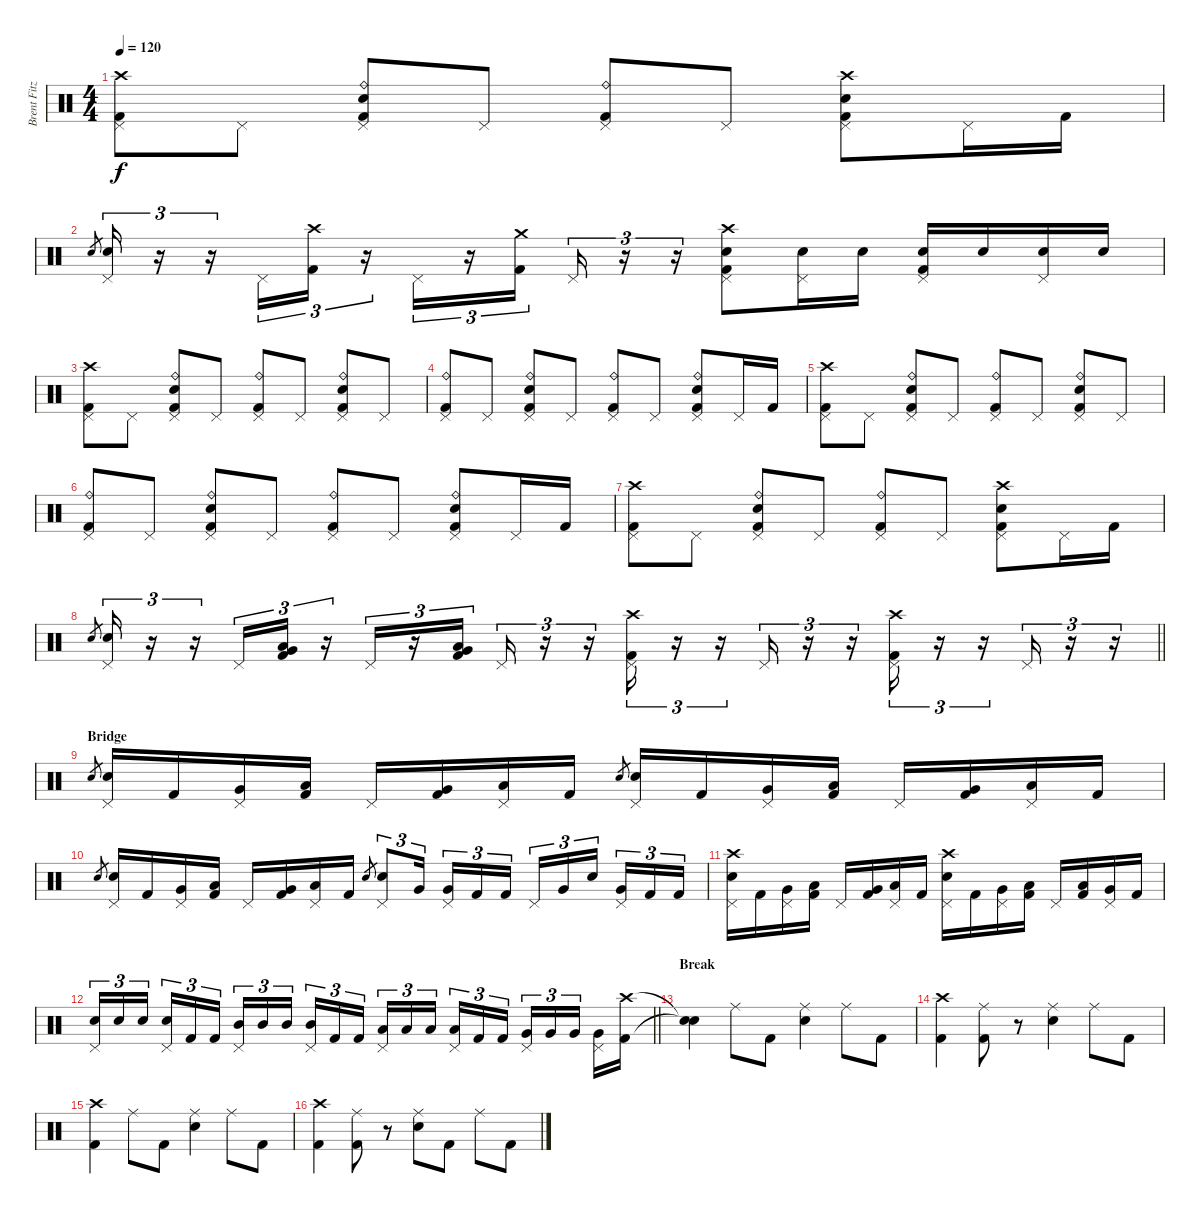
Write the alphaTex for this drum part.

\track ("Brent Fitz" "Brent Fitz") {instrument percussion}
\staff {score}
\articulation defaults
\ts (4 4)
\tempo 120
\clef neutral
\ks c
("Crash high (hit)" "Pedal Hi-Hat (hit)" "Kick (hit) 2").8{dy f} "Pedal Hi-Hat (hit)".8 ("Ride (bell)" "Electric Snare (hit)" "Pedal Hi-Hat (hit)" "Kick (hit) 2").8 "Pedal Hi-Hat (hit)".8 ("Ride (bell)" "Pedal Hi-Hat (hit)" "Kick (hit) 2").8 "Pedal Hi-Hat (hit)".8 ("Crash high (hit)" "Electric Snare (hit)" "Pedal Hi-Hat (hit)" "Kick (hit) 2").8 "Pedal Hi-Hat (hit)".16 "Kick (hit) 2".16 |
"Electric Snare (hit)".8{gr} ("Electric Snare (hit)" "Pedal Hi-Hat (hit)").16{tu (3 2)} r.16{tu (3 2)} r.16{tu (3 2)} "Pedal Hi-Hat (hit)".16{tu (3 2)} ("Crash high (hit)" "Kick (hit) 2").16{tu (3 2)} r.16{tu (3 2)} "Pedal Hi-Hat (hit)".16{tu (3 2)} r.16{tu (3 2)} ("Crash medium (hit)" "Kick (hit) 2").16{tu (3 2)} "Pedal Hi-Hat (hit)".16{tu (3 2)} r.16{tu (3 2)} r.16{tu (3 2)} ("Crash high (hit)" "Electric Snare (hit)" "Kick (hit) 2" "Pedal Hi-Hat (hit)").8 ("Electric Snare (hit)" "Pedal Hi-Hat (hit)").16 "Electric Snare (hit)".16 ("Electric Snare (hit)" "Kick (hit) 2" "Pedal Hi-Hat (hit)").16 "Electric Snare (hit)".16 ("Electric Snare (hit)" "Pedal Hi-Hat (hit)").16 "Electric Snare (hit)".16 |
("Crash high (hit)" "Pedal Hi-Hat (hit)" "Kick (hit) 2").8 "Pedal Hi-Hat (hit)".8 ("Ride (bell)" "Electric Snare (hit)" "Pedal Hi-Hat (hit)" "Kick (hit) 2").8 "Pedal Hi-Hat (hit)".8 ("Ride (bell)" "Pedal Hi-Hat (hit)" "Kick (hit) 2").8 "Pedal Hi-Hat (hit)".8 ("Ride (bell)" "Electric Snare (hit)" "Pedal Hi-Hat (hit)" "Kick (hit) 2").8 "Pedal Hi-Hat (hit)".8 |
("Ride (bell)" "Pedal Hi-Hat (hit)" "Kick (hit) 2").8 "Pedal Hi-Hat (hit)".8 ("Ride (bell)" "Electric Snare (hit)" "Pedal Hi-Hat (hit)" "Kick (hit) 2").8 "Pedal Hi-Hat (hit)".8 ("Ride (bell)" "Pedal Hi-Hat (hit)" "Kick (hit) 2").8 "Pedal Hi-Hat (hit)".8 ("Ride (bell)" "Electric Snare (hit)" "Pedal Hi-Hat (hit)" "Kick (hit) 2").8 "Pedal Hi-Hat (hit)".16 "Kick (hit) 2".16 |
("Crash high (hit)" "Pedal Hi-Hat (hit)" "Kick (hit) 2").8 "Pedal Hi-Hat (hit)".8 ("Ride (bell)" "Electric Snare (hit)" "Pedal Hi-Hat (hit)" "Kick (hit) 2").8 "Pedal Hi-Hat (hit)".8 ("Ride (bell)" "Pedal Hi-Hat (hit)" "Kick (hit) 2").8 "Pedal Hi-Hat (hit)".8 ("Ride (bell)" "Electric Snare (hit)" "Pedal Hi-Hat (hit)" "Kick (hit) 2").8 "Pedal Hi-Hat (hit)".8 |
("Ride (bell)" "Pedal Hi-Hat (hit)" "Kick (hit) 2").8 "Pedal Hi-Hat (hit)".8 ("Ride (bell)" "Electric Snare (hit)" "Pedal Hi-Hat (hit)" "Kick (hit) 2").8 "Pedal Hi-Hat (hit)".8 ("Ride (bell)" "Pedal Hi-Hat (hit)" "Kick (hit) 2").8 "Pedal Hi-Hat (hit)".8 ("Ride (bell)" "Electric Snare (hit)" "Pedal Hi-Hat (hit)" "Kick (hit) 2").8 "Pedal Hi-Hat (hit)".16 "Kick (hit) 2".16 |
("Crash high (hit)" "Pedal Hi-Hat (hit)" "Kick (hit) 2").8 "Pedal Hi-Hat (hit)".8 ("Ride (bell)" "Electric Snare (hit)" "Pedal Hi-Hat (hit)" "Kick (hit) 2").8 "Pedal Hi-Hat (hit)".8 ("Ride (bell)" "Pedal Hi-Hat (hit)" "Kick (hit) 2").8 "Pedal Hi-Hat (hit)".8 ("Crash high (hit)" "Electric Snare (hit)" "Pedal Hi-Hat (hit)" "Kick (hit) 2").8 "Pedal Hi-Hat (hit)".16 "Kick (hit) 2".16 |
\barLineRight lightlight "Electric Snare (hit)".8{gr}
("Electric Snare (hit)" "Pedal Hi-Hat (hit)").16{tu (3 2)} r.16{tu (3 2)} r.16{tu (3 2)} "Pedal Hi-Hat (hit)".16{tu (3 2)} ("Low Tom (hit)" "Very Low Tom (hit)" "Kick (hit) 2").16{tu (3 2)} r.16{tu (3 2)} "Pedal Hi-Hat (hit)".16{tu (3 2)} r.16{tu (3 2)} ("Low Tom (hit)" "Very Low Tom (hit)" "Kick (hit) 2").16{tu (3 2)} "Pedal Hi-Hat (hit)".16{tu (3 2)} r.16{tu (3 2)} r.16{tu (3 2)} ("Crash high (hit)" "Kick (hit) 2" "Pedal Hi-Hat (hit)").16{tu (3 2)} r.16{tu (3 2)} r.16{tu (3 2)} "Pedal Hi-Hat (hit)".16{tu (3 2)} r.16{tu (3 2)} r.16{tu (3 2)} ("Crash high (hit)" "Kick (hit) 2" "Pedal Hi-Hat (hit)").16{tu (3 2)} r.16{tu (3 2)} r.16{tu (3 2)} "Pedal Hi-Hat (hit)".16{tu (3 2)} r.16{tu (3 2)} r.16{tu (3 2)} |
\section ("" "Bridge")
"Electric Snare (hit)".8{gr} ("Electric Snare (hit)" "Pedal Hi-Hat (hit)").16 "Kick (hit) 2".16 ("Very Low Tom (hit)" "Pedal Hi-Hat (hit)").16 ("Low Tom (hit)" "Kick (hit) 2").16 "Pedal Hi-Hat (hit)".16 ("Very Low Tom (hit)" "Kick (hit) 2").16 ("Low Tom (hit)" "Pedal Hi-Hat (hit)").16 "Kick (hit) 2".16 "Electric Snare (hit)".8{gr} ("Electric Snare (hit)" "Pedal Hi-Hat (hit)").16 "Kick (hit) 2".16 ("Very Low Tom (hit)" "Pedal Hi-Hat (hit)").16 ("Low Tom (hit)" "Kick (hit) 2").16 "Pedal Hi-Hat (hit)".16 ("Very Low Tom (hit)" "Kick (hit) 2").16 ("Low Tom (hit)" "Pedal Hi-Hat (hit)").16 "Kick (hit) 2".16 |
"Electric Snare (hit)".8{gr} ("Electric Snare (hit)" "Pedal Hi-Hat (hit)").16 "Kick (hit) 2".16 ("Very Low Tom (hit)" "Pedal Hi-Hat (hit)").16 ("Low Tom (hit)" "Kick (hit) 2").16 "Pedal Hi-Hat (hit)".16 ("Very Low Tom (hit)" "Kick (hit) 2").16 ("Low Tom (hit)" "Pedal Hi-Hat (hit)").16 "Kick (hit) 2".16 "Electric Snare (hit)".8{gr} ("Electric Snare (hit)" "Pedal Hi-Hat (hit)").8{tu (3 2)} "Very Low Tom (hit)".16{tu (3 2) beam splitsecondary} ("Very Low Tom (hit)" "Pedal Hi-Hat (hit)").16{tu (3 2)} "Kick (hit) 2".16{tu (3 2)} "Kick (hit) 2".16{tu (3 2)} "Pedal Hi-Hat (hit)".16{tu (3 2)} "Very Low Tom (hit)".16{tu (3 2)} "Electric Snare (hit)".16{tu (3 2) beam splitsecondary} ("Very Low Tom (hit)" "Pedal Hi-Hat (hit)").16{tu (3 2)} "Kick (hit) 2".16{tu (3 2)} "Kick (hit) 2".16{tu (3 2)} |
("Crash high (hit)" "Electric Snare (hit)" "Pedal Hi-Hat (hit)").16 "Kick (hit) 2".16 ("Very Low Tom (hit)" "Pedal Hi-Hat (hit)").16 ("Low Tom (hit)" "Kick (hit) 2").16 "Pedal Hi-Hat (hit)".16 ("Very Low Tom (hit)" "Kick (hit) 2").16 ("Low Tom (hit)" "Pedal Hi-Hat (hit)").16 "Kick (hit) 2".16 ("Crash high (hit)" "Electric Snare (hit)" "Pedal Hi-Hat (hit)").16 "Kick (hit) 2".16 ("Very Low Tom (hit)" "Pedal Hi-Hat (hit)").16 ("Low Tom (hit)" "Kick (hit) 2").16 "Pedal Hi-Hat (hit)".16 ("Low Tom (hit)" "Kick (hit) 2").16 ("Very Low Tom (hit)" "Pedal Hi-Hat (hit)").16 "Kick (hit) 2".16 |
\barLineRight lightlight
("Electric Snare (hit)" "Pedal Hi-Hat (hit)").16{tu (3 2)} "Electric Snare (hit)".16{tu (3 2)} "Electric Snare (hit)".16{tu (3 2) beam splitsecondary} ("Electric Snare (hit)" "Pedal Hi-Hat (hit)").16{tu (3 2)} "Kick (hit) 2".16{tu (3 2)} "Kick (hit) 2".16{tu (3 2)} ("Mid Tom (hit)" "Pedal Hi-Hat (hit)").16{tu (3 2)} "Mid Tom (hit)".16{tu (3 2)} "Mid Tom (hit)".16{tu (3 2) beam splitsecondary} ("Mid Tom (hit)" "Pedal Hi-Hat (hit)").16{tu (3 2)} "Kick (hit) 2".16{tu (3 2)} "Kick (hit) 2".16{tu (3 2)} ("Low Tom (hit)" "Pedal Hi-Hat (hit)").16{tu (3 2)} "Low Tom (hit)".16{tu (3 2)} "Low Tom (hit)".16{tu (3 2) beam splitsecondary} ("Low Tom (hit)" "Pedal Hi-Hat (hit)").16{tu (3 2)} "Kick (hit) 2".16{tu (3 2)} "Kick (hit) 2".16{tu (3 2)} ("Very Low Tom (hit)" "Pedal Hi-Hat (hit)").16{tu (3 2)} "Very Low Tom (hit)".16{tu (3 2)} "Very Low Tom (hit)".16{tu (3 2) beam splitsecondary} ("Very Low Tom (hit)" "Pedal Hi-Hat (hit)").16 ("Crash high (hit)" "Kick (hit) 2").16 |
\section ("" "Break")
("Snare (hit)"{t} "Snare (hit)"{t}).4 "Ride (middle)".8 "Kick (hit) 2".8 ("Ride (middle)" "Electric Snare (hit)").4 "Ride (middle)".8 "Kick (hit) 2".8 |
("Crash high (hit)" "Kick (hit) 2").4 ("Ride (middle)" "Kick (hit) 2").8 r.8 ("Ride (middle)" "Electric Snare (hit)").4 "Ride (middle)".8 "Kick (hit) 2".8 |
("Crash high (hit)" "Kick (hit) 2").4 "Ride (middle)".8 "Kick (hit) 2".8 ("Ride (middle)" "Electric Snare (hit)").4 "Ride (middle)".8 "Kick (hit) 2".8 |
("Crash high (hit)" "Kick (hit) 2").4 ("Ride (middle)" "Kick (hit) 2").8 r.8 ("Ride (middle)" "Electric Snare (hit)").8 "Kick (hit) 2".8 "Ride (middle)".8 "Kick (hit) 2".8
